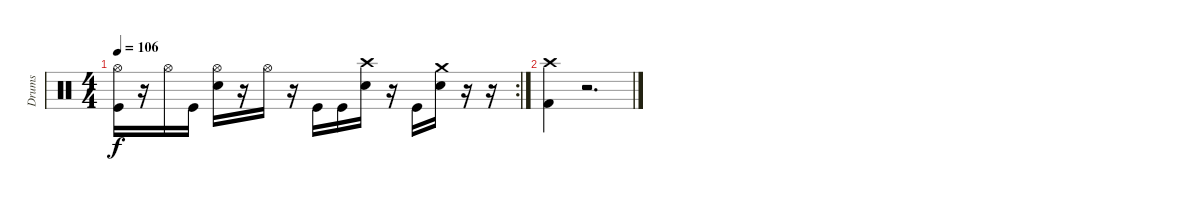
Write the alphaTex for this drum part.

\track ("Drums" "Drums") {instrument percussion}
\staff {score}
\articulation defaults
\rc 2
\ts (4 4)
\tempo 106
\clef neutral
\ks c
("Hi-Hat (open)" "Kick (hit)").16{dy f} r.16 "Hi-Hat (open)".16 "Kick (hit)".16 ("Hi-Hat (open)" "Electric Snare (hit)").16 r.16 "Hi-Hat (open)".16 r.16 "Kick (hit)".16 "Kick (hit)".16 ("Crash high (hit)" "Electric Snare (hit)").16 r.16 "Kick (hit)".16 ("Crash medium (hit)" "Electric Snare (hit)").16 r.16 r.16 |
("Crash high (hit)" "Kick (hit) 2").4 r.2{d}
